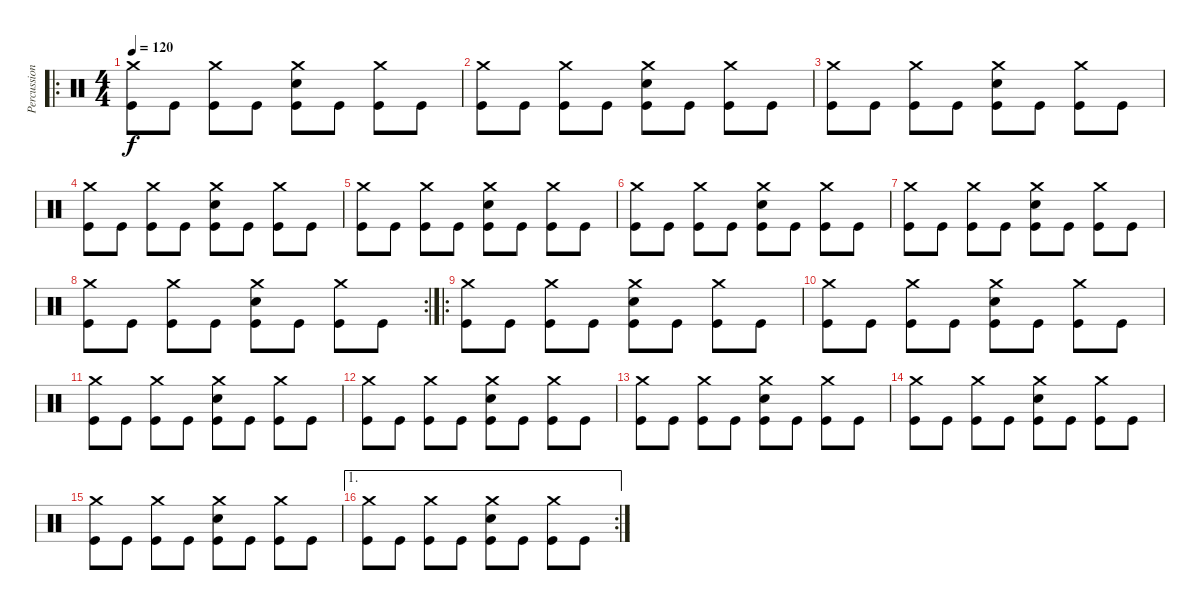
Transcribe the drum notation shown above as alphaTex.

\track ("Percussion" "Percussion") {instrument percussion}
\staff {score}
\articulation defaults
\ro
\ts (4 4)
\tempo 120
\clef neutral
\ks c
("Crash medium (hit)" "Kick (hit)").8{dy f} "Kick (hit)".8 ("Crash medium (hit)" "Kick (hit)").8 "Kick (hit)".8 ("Crash medium (hit)" "Snare (hit) 2" "Kick (hit)").8 "Kick (hit)".8 ("Crash medium (hit)" "Kick (hit)").8 "Kick (hit)".8 |
("Crash medium (hit)" "Kick (hit)").8 "Kick (hit)".8 ("Crash medium (hit)" "Kick (hit)").8 "Kick (hit)".8 ("Crash medium (hit)" "Snare (hit) 2" "Kick (hit)").8 "Kick (hit)".8 ("Crash medium (hit)" "Kick (hit)").8 "Kick (hit)".8 |
("Crash medium (hit)" "Kick (hit)").8 "Kick (hit)".8 ("Crash medium (hit)" "Kick (hit)").8 "Kick (hit)".8 ("Crash medium (hit)" "Snare (hit) 2" "Kick (hit)").8 "Kick (hit)".8 ("Crash medium (hit)" "Kick (hit)").8 "Kick (hit)".8 |
("Crash medium (hit)" "Kick (hit)").8 "Kick (hit)".8 ("Crash medium (hit)" "Kick (hit)").8 "Kick (hit)".8 ("Crash medium (hit)" "Snare (hit) 2" "Kick (hit)").8 "Kick (hit)".8 ("Crash medium (hit)" "Kick (hit)").8 "Kick (hit)".8 |
("Crash medium (hit)" "Kick (hit)").8 "Kick (hit)".8 ("Crash medium (hit)" "Kick (hit)").8 "Kick (hit)".8 ("Crash medium (hit)" "Snare (hit) 2" "Kick (hit)").8 "Kick (hit)".8 ("Crash medium (hit)" "Kick (hit)").8 "Kick (hit)".8 |
("Crash medium (hit)" "Kick (hit)").8 "Kick (hit)".8 ("Crash medium (hit)" "Kick (hit)").8 "Kick (hit)".8 ("Crash medium (hit)" "Snare (hit) 2" "Kick (hit)").8 "Kick (hit)".8 ("Crash medium (hit)" "Kick (hit)").8 "Kick (hit)".8 |
("Crash medium (hit)" "Kick (hit)").8 "Kick (hit)".8 ("Crash medium (hit)" "Kick (hit)").8 "Kick (hit)".8 ("Crash medium (hit)" "Snare (hit) 2" "Kick (hit)").8 "Kick (hit)".8 ("Crash medium (hit)" "Kick (hit)").8 "Kick (hit)".8 |
\rc 2
("Crash medium (hit)" "Kick (hit)").8 "Kick (hit)".8 ("Crash medium (hit)" "Kick (hit)").8 "Kick (hit)".8 ("Crash medium (hit)" "Snare (hit) 2" "Kick (hit)").8 "Kick (hit)".8 ("Crash medium (hit)" "Kick (hit)").8 "Kick (hit)".8 |
\ro
("Crash medium (hit)" "Kick (hit)").8 "Kick (hit)".8 ("Crash medium (hit)" "Kick (hit)").8 "Kick (hit)".8 ("Crash medium (hit)" "Snare (hit) 2" "Kick (hit)").8 "Kick (hit)".8 ("Crash medium (hit)" "Kick (hit)").8 "Kick (hit)".8 |
("Crash medium (hit)" "Kick (hit)").8 "Kick (hit)".8 ("Crash medium (hit)" "Kick (hit)").8 "Kick (hit)".8 ("Crash medium (hit)" "Snare (hit) 2" "Kick (hit)").8 "Kick (hit)".8 ("Crash medium (hit)" "Kick (hit)").8 "Kick (hit)".8 |
("Crash medium (hit)" "Kick (hit)").8 "Kick (hit)".8 ("Crash medium (hit)" "Kick (hit)").8 "Kick (hit)".8 ("Crash medium (hit)" "Snare (hit) 2" "Kick (hit)").8 "Kick (hit)".8 ("Crash medium (hit)" "Kick (hit)").8 "Kick (hit)".8 |
("Crash medium (hit)" "Kick (hit)").8 "Kick (hit)".8 ("Crash medium (hit)" "Kick (hit)").8 "Kick (hit)".8 ("Crash medium (hit)" "Snare (hit) 2" "Kick (hit)").8 "Kick (hit)".8 ("Crash medium (hit)" "Kick (hit)").8 "Kick (hit)".8 |
("Crash medium (hit)" "Kick (hit)").8 "Kick (hit)".8 ("Crash medium (hit)" "Kick (hit)").8 "Kick (hit)".8 ("Crash medium (hit)" "Snare (hit) 2" "Kick (hit)").8 "Kick (hit)".8 ("Crash medium (hit)" "Kick (hit)").8 "Kick (hit)".8 |
("Crash medium (hit)" "Kick (hit)").8 "Kick (hit)".8 ("Crash medium (hit)" "Kick (hit)").8 "Kick (hit)".8 ("Crash medium (hit)" "Snare (hit) 2" "Kick (hit)").8 "Kick (hit)".8 ("Crash medium (hit)" "Kick (hit)").8 "Kick (hit)".8 |
("Crash medium (hit)" "Kick (hit)").8 "Kick (hit)".8 ("Crash medium (hit)" "Kick (hit)").8 "Kick (hit)".8 ("Crash medium (hit)" "Snare (hit) 2" "Kick (hit)").8 "Kick (hit)".8 ("Crash medium (hit)" "Kick (hit)").8 "Kick (hit)".8 |
\ae 1
\rc 2
("Crash medium (hit)" "Kick (hit)").8 "Kick (hit)".8 ("Crash medium (hit)" "Kick (hit)").8 "Kick (hit)".8 ("Crash medium (hit)" "Snare (hit) 2" "Kick (hit)").8 "Kick (hit)".8 ("Crash medium (hit)" "Kick (hit)").8 "Kick (hit)".8
